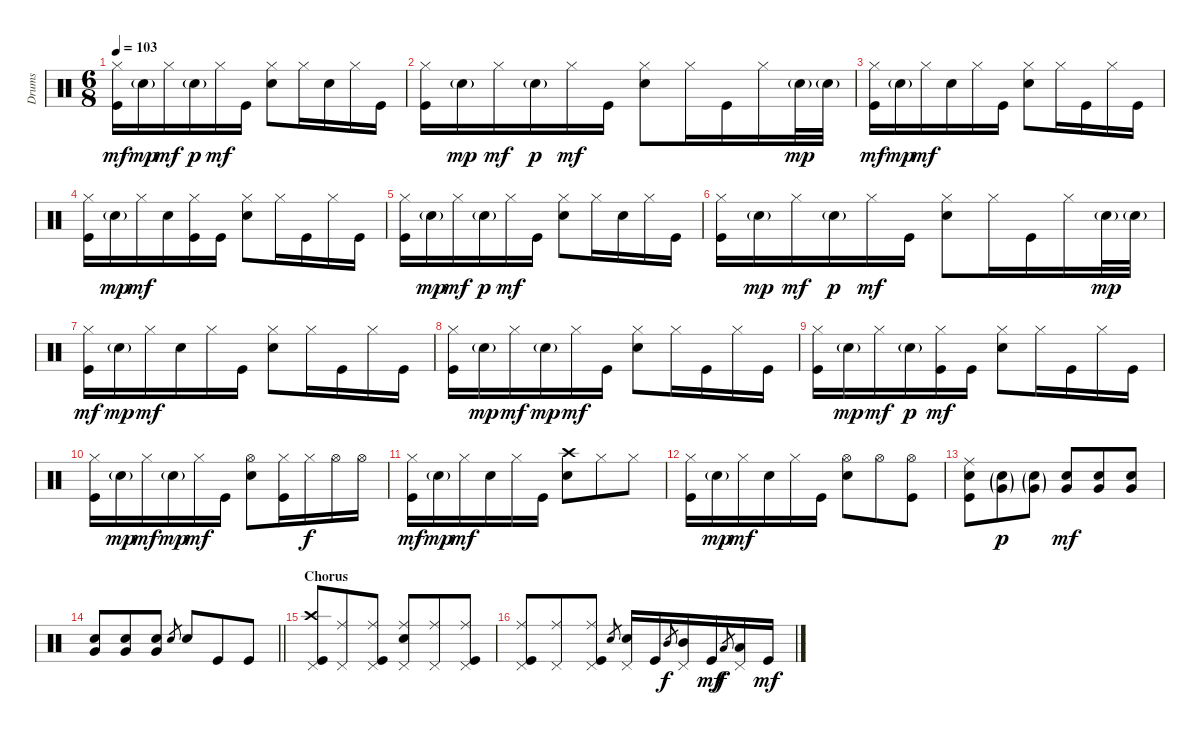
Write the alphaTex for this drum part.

\track ("Drums" "Drums") {instrument percussion}
\staff {score}
\articulation defaults
\ts (6 8)
\tempo 103
\clef neutral
\ks c
("Kick (hit)" "Hi-Hat (closed)").16{dy mf} "Snare (hit) 2"{g}.16{dy mp} "Hi-Hat (closed)".16{dy mf} "Snare (hit) 2"{g}.16{dy p} "Hi-Hat (closed)".16{dy mf} "Kick (hit)".16 ("Hi-Hat (closed)" "Snare (hit) 2").8 "Hi-Hat (closed)".16 "Snare (hit) 2".16 "Hi-Hat (closed)".16 "Kick (hit)".16 |
("Kick (hit)" "Hi-Hat (closed)").16 "Snare (hit) 2"{g}.16{dy mp} "Hi-Hat (closed)".16{dy mf} "Snare (hit) 2"{g}.16{dy p} "Hi-Hat (closed)".16{dy mf} "Kick (hit)".16 ("Hi-Hat (closed)" "Snare (hit) 2").8 "Hi-Hat (closed)".16 "Kick (hit)".16 "Hi-Hat (closed)".16 "Snare (hit) 2"{g}.32{dy mp} "Snare (hit) 2"{g}.32 |
("Kick (hit)" "Hi-Hat (closed)").16{dy mf} "Snare (hit) 2"{g}.16{dy mp} "Hi-Hat (closed)".16{dy mf} "Snare (hit) 2".16 "Hi-Hat (closed)".16 "Kick (hit)".16 ("Hi-Hat (closed)" "Snare (hit) 2").8 "Hi-Hat (closed)".16 "Kick (hit)".16 "Hi-Hat (closed)".16 "Kick (hit)".16 |
("Kick (hit)" "Hi-Hat (closed)").16 "Snare (hit) 2"{g}.16{dy mp} "Hi-Hat (closed)".16{dy mf} "Snare (hit) 2".16 ("Hi-Hat (closed)" "Kick (hit)").16 "Kick (hit)".16 ("Hi-Hat (closed)" "Snare (hit) 2").8 "Hi-Hat (closed)".16 "Kick (hit)".16 "Hi-Hat (closed)".16 "Kick (hit)".16 |
("Kick (hit)" "Hi-Hat (closed)").16 "Snare (hit) 2"{g}.16{dy mp} "Hi-Hat (closed)".16{dy mf} "Snare (hit) 2"{g}.16{dy p} "Hi-Hat (closed)".16{dy mf} "Kick (hit)".16 ("Hi-Hat (closed)" "Snare (hit) 2").8 "Hi-Hat (closed)".16 "Snare (hit) 2".16 "Hi-Hat (closed)".16 "Kick (hit)".16 |
("Kick (hit)" "Hi-Hat (closed)").16 "Snare (hit) 2"{g}.16{dy mp} "Hi-Hat (closed)".16{dy mf} "Snare (hit) 2"{g}.16{dy p} "Hi-Hat (closed)".16{dy mf} "Kick (hit)".16 ("Hi-Hat (closed)" "Snare (hit) 2").8 "Hi-Hat (closed)".16 "Kick (hit)".16 "Hi-Hat (closed)".16 "Snare (hit) 2"{g}.32{dy mp} "Snare (hit) 2"{g}.32 |
("Kick (hit)" "Hi-Hat (closed)").16{dy mf} "Snare (hit) 2"{g}.16{dy mp} "Hi-Hat (closed)".16{dy mf} "Snare (hit) 2".16 "Hi-Hat (closed)".16 "Kick (hit)".16 ("Hi-Hat (closed)" "Snare (hit) 2").8 "Hi-Hat (closed)".16 "Kick (hit)".16 "Hi-Hat (closed)".16 "Kick (hit)".16 |
("Kick (hit)" "Hi-Hat (closed)").16 "Snare (hit) 2"{g}.16{dy mp} "Hi-Hat (closed)".16{dy mf} "Snare (hit) 2"{g}.16{dy mp} "Hi-Hat (closed)".16{dy mf} "Kick (hit)".16 ("Hi-Hat (closed)" "Snare (hit) 2").8 "Hi-Hat (closed)".16 "Kick (hit)".16 "Hi-Hat (closed)".16 "Kick (hit)".16 |
("Kick (hit)" "Hi-Hat (closed)").16 "Snare (hit) 2"{g}.16{dy mp} "Hi-Hat (closed)".16{dy mf} "Snare (hit) 2"{g}.16{dy p} ("Hi-Hat (closed)" "Kick (hit)").16{dy mf} "Kick (hit)".16 ("Hi-Hat (closed)" "Snare (hit) 2").8 "Hi-Hat (closed)".16 "Kick (hit)".16 "Hi-Hat (closed)".16 "Kick (hit)".16 |
("Kick (hit)" "Hi-Hat (closed)").16 "Snare (hit) 2"{g}.16{dy mp} "Hi-Hat (closed)".16{dy mf} "Snare (hit) 2"{g}.16{dy mp} "Hi-Hat (closed)".16{dy mf} "Kick (hit)".16 ("Hi-Hat (open)" "Snare (hit) 2").8 ("Hi-Hat (closed)" "Kick (hit)").16 "Hi-Hat (closed)".16{dy f} "Hi-Hat (open)".16 "Hi-Hat (open)".16 |
("Kick (hit)" "Hi-Hat (closed)").16{dy mf} "Snare (hit) 2"{g}.16{dy mp} "Hi-Hat (closed)".16{dy mf} "Snare (hit) 2".16 "Hi-Hat (closed)".16 "Kick (hit)".16 ("Crash high (hit)" "Snare (hit) 2").8 "Hi-Hat (closed)".8 "Hi-Hat (closed)".8 |
("Kick (hit)" "Hi-Hat (closed)").16 "Snare (hit) 2"{g}.16{dy mp} "Hi-Hat (closed)".16{dy mf} "Snare (hit) 2".16 "Hi-Hat (closed)".16 "Kick (hit)".16 ("Hi-Hat (open)" "Snare (hit) 2").8 "Hi-Hat (open)".8 ("Hi-Hat (open)" "Kick (hit)").8 |
("Ride (middle)" "Snare (hit) 2" "Kick (hit)").8 ("Snare (hit) 2"{g} "Very Low Tom (hit)"{g}).8{dy p} ("Snare (hit) 2"{g} "Very Low Tom (hit)"{g}).8 ("Snare (hit) 2" "Very Low Tom (hit)").8{dy mf} ("Snare (hit) 2" "Very Low Tom (hit)").8 ("Snare (hit) 2" "Very Low Tom (hit)").8 |
\barLineRight lightlight
("Snare (hit) 2" "Very Low Tom (hit)").8 ("Very Low Tom (hit)" "Snare (hit) 2").8 ("Very Low Tom (hit)" "Snare (hit) 2").8 "Snare (hit) 2".8{gr} "Snare (hit) 2".8 "Kick (hit)".8 "Kick (hit)".8 |
\section ("" "Chorus")
("Pedal Hi-Hat (hit)" "Crash high (hit)" "Kick (hit)").8 ("Pedal Hi-Hat (hit)" "Ride (middle)").8 ("Pedal Hi-Hat (hit)" "Ride (middle)" "Kick (hit)").8 ("Pedal Hi-Hat (hit)" "Ride (middle)" "Snare (hit) 2").8 ("Pedal Hi-Hat (hit)" "Ride (middle)").8 ("Pedal Hi-Hat (hit)" "Ride (middle)" "Kick (hit)").8 |
("Pedal Hi-Hat (hit)" "Ride (middle)" "Kick (hit)").8 ("Pedal Hi-Hat (hit)" "Ride (middle)").8 ("Pedal Hi-Hat (hit)" "Ride (middle)" "Kick (hit)").8 "Snare (hit) 2".8{gr} ("Pedal Hi-Hat (hit)" "Snare (hit) 2").16 "Kick (hit)".16 "Mid Tom (hit)".8{gr dy f} ("Pedal Hi-Hat (hit)" "Mid Tom (hit)").16 "Kick (hit)".16{dy mf} "Low Tom (hit)".8{gr dy f} ("Pedal Hi-Hat (hit)" "Low Tom (hit)").16 "Kick (hit)".16{dy mf}
